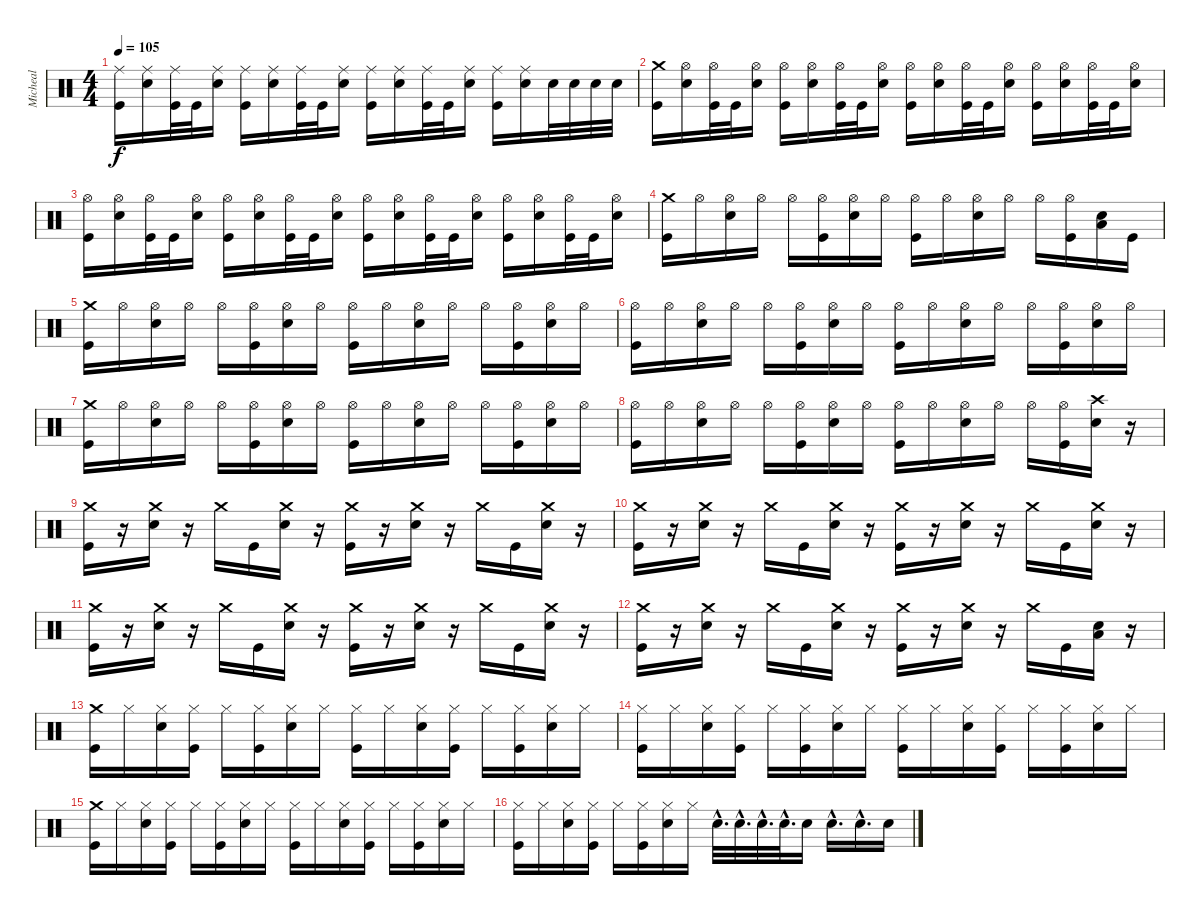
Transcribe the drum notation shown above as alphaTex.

\track ("Micheal" "Micheal") {instrument percussion}
\staff {score}
\articulation defaults
\ts (4 4)
\tempo 105
\clef neutral
\ks c
("Ride (middle)" "Kick (hit)").16{dy f} ("Ride (middle)" "Electric Snare (hit)").16 ("Ride (middle)" "Kick (hit)").32 "Kick (hit)".32 ("Ride (middle)" "Electric Snare (hit)").16 ("Ride (middle)" "Kick (hit)").16 ("Ride (middle)" "Electric Snare (hit)").16 ("Ride (middle)" "Kick (hit)").32 "Kick (hit)".32 ("Ride (middle)" "Electric Snare (hit)").16 ("Ride (middle)" "Kick (hit)").16 ("Ride (middle)" "Electric Snare (hit)").16 ("Ride (middle)" "Kick (hit)").32 "Kick (hit)".32 ("Ride (middle)" "Electric Snare (hit)").16 ("Ride (middle)" "Kick (hit)").16 ("Ride (middle)" "Electric Snare (hit)").16 "Electric Snare (hit)".32 "Electric Snare (hit)".32 "Electric Snare (hit)".32 "Electric Snare (hit)".32 |
("Crash medium (hit)" "Kick (hit)").16 ("Hi-Hat (open)" "Electric Snare (hit)").16 ("Hi-Hat (open)" "Kick (hit)").32 "Kick (hit)".32 ("Hi-Hat (open)" "Electric Snare (hit)").16 ("Hi-Hat (open)" "Kick (hit)").16 ("Hi-Hat (open)" "Electric Snare (hit)").16 ("Hi-Hat (open)" "Kick (hit)").32 "Kick (hit)".32 ("Hi-Hat (open)" "Electric Snare (hit)").16 ("Hi-Hat (open)" "Kick (hit)").16 ("Hi-Hat (open)" "Electric Snare (hit)").16 ("Hi-Hat (open)" "Kick (hit)").32 "Kick (hit)".32 ("Hi-Hat (open)" "Electric Snare (hit)").16 ("Hi-Hat (open)" "Kick (hit)").16 ("Hi-Hat (open)" "Electric Snare (hit)").16 ("Hi-Hat (open)" "Kick (hit)").32 "Kick (hit)".32 ("Hi-Hat (open)" "Electric Snare (hit)").16 |
("Hi-Hat (open)" "Kick (hit)").16 ("Hi-Hat (open)" "Electric Snare (hit)").16 ("Hi-Hat (open)" "Kick (hit)").32 "Kick (hit)".32 ("Hi-Hat (open)" "Electric Snare (hit)").16 ("Hi-Hat (open)" "Kick (hit)").16 ("Hi-Hat (open)" "Electric Snare (hit)").16 ("Hi-Hat (open)" "Kick (hit)").32 "Kick (hit)".32 ("Hi-Hat (open)" "Electric Snare (hit)").16 ("Hi-Hat (open)" "Kick (hit)").16 ("Hi-Hat (open)" "Electric Snare (hit)").16 ("Hi-Hat (open)" "Kick (hit)").32 "Kick (hit)".32 ("Hi-Hat (open)" "Electric Snare (hit)").16 ("Hi-Hat (open)" "Kick (hit)").16 ("Hi-Hat (open)" "Electric Snare (hit)").16 ("Hi-Hat (open)" "Kick (hit)").32 "Kick (hit)".32 ("Hi-Hat (open)" "Electric Snare (hit)").16 |
("Crash medium (hit)" "Kick (hit)").16 "Hi-Hat (open)".16 ("Hi-Hat (open)" "Electric Snare (hit)").16 "Hi-Hat (open)".16 "Hi-Hat (open)".16 ("Hi-Hat (open)" "Kick (hit)").16 ("Hi-Hat (open)" "Electric Snare (hit)").16 "Hi-Hat (open)".16 ("Hi-Hat (open)" "Kick (hit)").16 "Hi-Hat (open)".16 ("Hi-Hat (open)" "Electric Snare (hit)").16 "Hi-Hat (open)".16 "Hi-Hat (open)".16 ("Hi-Hat (open)" "Kick (hit)").16 ("Low Tom (hit)" "Electric Snare (hit)").16 "Kick (hit)".16 |
("Crash medium (hit)" "Kick (hit)").16 "Hi-Hat (open)".16 ("Hi-Hat (open)" "Electric Snare (hit)").16 "Hi-Hat (open)".16 "Hi-Hat (open)".16 ("Hi-Hat (open)" "Kick (hit)").16 ("Hi-Hat (open)" "Electric Snare (hit)").16 "Hi-Hat (open)".16 ("Hi-Hat (open)" "Kick (hit)").16 "Hi-Hat (open)".16 ("Hi-Hat (open)" "Electric Snare (hit)").16 "Hi-Hat (open)".16 "Hi-Hat (open)".16 ("Hi-Hat (open)" "Kick (hit)").16 ("Hi-Hat (open)" "Electric Snare (hit)").16 "Hi-Hat (open)".16 |
("Hi-Hat (open)" "Kick (hit)").16 "Hi-Hat (open)".16 ("Hi-Hat (open)" "Electric Snare (hit)").16 "Hi-Hat (open)".16 "Hi-Hat (open)".16 ("Hi-Hat (open)" "Kick (hit)").16 ("Hi-Hat (open)" "Electric Snare (hit)").16 "Hi-Hat (open)".16 ("Hi-Hat (open)" "Kick (hit)").16 "Hi-Hat (open)".16 ("Hi-Hat (open)" "Electric Snare (hit)").16 "Hi-Hat (open)".16 "Hi-Hat (open)".16 ("Hi-Hat (open)" "Kick (hit)").16 ("Hi-Hat (open)" "Electric Snare (hit)").16 "Hi-Hat (open)".16 |
("Crash medium (hit)" "Kick (hit)").16 "Hi-Hat (open)".16 ("Hi-Hat (open)" "Electric Snare (hit)").16 "Hi-Hat (open)".16 "Hi-Hat (open)".16 ("Hi-Hat (open)" "Kick (hit)").16 ("Hi-Hat (open)" "Electric Snare (hit)").16 "Hi-Hat (open)".16 ("Hi-Hat (open)" "Kick (hit)").16 "Hi-Hat (open)".16 ("Hi-Hat (open)" "Electric Snare (hit)").16 "Hi-Hat (open)".16 "Hi-Hat (open)".16 ("Hi-Hat (open)" "Kick (hit)").16 ("Hi-Hat (open)" "Electric Snare (hit)").16 "Hi-Hat (open)".16 |
("Hi-Hat (open)" "Kick (hit)").16 "Hi-Hat (open)".16 ("Hi-Hat (open)" "Electric Snare (hit)").16 "Hi-Hat (open)".16 "Hi-Hat (open)".16 ("Hi-Hat (open)" "Kick (hit)").16 ("Hi-Hat (open)" "Electric Snare (hit)").16 "Hi-Hat (open)".16 ("Hi-Hat (open)" "Kick (hit)").16 "Hi-Hat (open)".16 ("Hi-Hat (open)" "Electric Snare (hit)").16 "Hi-Hat (open)".16 "Hi-Hat (open)".16 ("Hi-Hat (open)" "Kick (hit)").16 ("Crash high (hit)" "Electric Snare (hit)").16 r.16 |
("Crash medium (hit)" "Kick (hit)").16 r.16 ("Crash medium (hit)" "Electric Snare (hit)").16 r.16 "Crash medium (hit)".16 "Kick (hit)".16 ("Crash medium (hit)" "Electric Snare (hit)").16 r.16 ("Crash medium (hit)" "Kick (hit)").16 r.16 ("Crash medium (hit)" "Electric Snare (hit)").16 r.16 "Crash medium (hit)".16 "Kick (hit)".16 ("Crash medium (hit)" "Electric Snare (hit)").16 r.16 |
("Crash medium (hit)" "Kick (hit)").16 r.16 ("Crash medium (hit)" "Electric Snare (hit)").16 r.16 "Crash medium (hit)".16 "Kick (hit)".16 ("Crash medium (hit)" "Electric Snare (hit)").16 r.16 ("Crash medium (hit)" "Kick (hit)").16 r.16 ("Crash medium (hit)" "Electric Snare (hit)").16 r.16 "Crash medium (hit)".16 "Kick (hit)".16 ("Crash medium (hit)" "Electric Snare (hit)").16 r.16 |
("Crash medium (hit)" "Kick (hit)").16 r.16 ("Crash medium (hit)" "Electric Snare (hit)").16 r.16 "Crash medium (hit)".16 "Kick (hit)".16 ("Crash medium (hit)" "Electric Snare (hit)").16 r.16 ("Crash medium (hit)" "Kick (hit)").16 r.16 ("Crash medium (hit)" "Electric Snare (hit)").16 r.16 "Crash medium (hit)".16 "Kick (hit)".16 ("Crash medium (hit)" "Electric Snare (hit)").16 r.16 |
("Crash medium (hit)" "Kick (hit)").16 r.16 ("Crash medium (hit)" "Electric Snare (hit)").16 r.16 "Crash medium (hit)".16 "Kick (hit)".16 ("Crash medium (hit)" "Electric Snare (hit)").16 r.16 ("Crash medium (hit)" "Kick (hit)").16 r.16 ("Crash medium (hit)" "Electric Snare (hit)").16 r.16 "Crash medium (hit)".16 "Kick (hit)".16 ("Low Tom (hit)" "Electric Snare (hit)").16 r.16 |
("Crash medium (hit)" "Kick (hit)").16 "Hi-Hat (closed)".16 ("Hi-Hat (closed)" "Electric Snare (hit)").16 ("Hi-Hat (closed)" "Kick (hit)").16 "Hi-Hat (closed)".16 ("Hi-Hat (closed)" "Kick (hit)").16 ("Hi-Hat (closed)" "Electric Snare (hit)").16 "Hi-Hat (closed)".16 ("Hi-Hat (closed)" "Kick (hit)").16 "Hi-Hat (closed)".16 ("Hi-Hat (closed)" "Electric Snare (hit)").16 ("Hi-Hat (closed)" "Kick (hit)").16 "Hi-Hat (closed)".16 ("Hi-Hat (closed)" "Kick (hit)").16 ("Hi-Hat (closed)" "Electric Snare (hit)").16 "Hi-Hat (closed)".16 |
("Hi-Hat (closed)" "Kick (hit)").16 "Hi-Hat (closed)".16 ("Hi-Hat (closed)" "Electric Snare (hit)").16 ("Hi-Hat (closed)" "Kick (hit)").16 "Hi-Hat (closed)".16 ("Hi-Hat (closed)" "Kick (hit)").16 ("Hi-Hat (closed)" "Electric Snare (hit)").16 "Hi-Hat (closed)".16 ("Hi-Hat (closed)" "Kick (hit)").16 "Hi-Hat (closed)".16 ("Hi-Hat (closed)" "Electric Snare (hit)").16 ("Hi-Hat (closed)" "Kick (hit)").16 "Hi-Hat (closed)".16 ("Hi-Hat (closed)" "Kick (hit)").16 ("Hi-Hat (closed)" "Electric Snare (hit)").16 "Hi-Hat (closed)".16 |
("Crash medium (hit)" "Kick (hit)").16 "Hi-Hat (closed)".16 ("Hi-Hat (closed)" "Electric Snare (hit)").16 ("Hi-Hat (closed)" "Kick (hit)").16 "Hi-Hat (closed)".16 ("Hi-Hat (closed)" "Kick (hit)").16 ("Hi-Hat (closed)" "Electric Snare (hit)").16 "Hi-Hat (closed)".16 ("Hi-Hat (closed)" "Kick (hit)").16 "Hi-Hat (closed)".16 ("Hi-Hat (closed)" "Electric Snare (hit)").16 ("Hi-Hat (closed)" "Kick (hit)").16 "Hi-Hat (closed)".16 ("Hi-Hat (closed)" "Kick (hit)").16 ("Hi-Hat (closed)" "Electric Snare (hit)").16 "Hi-Hat (closed)".16 |
("Hi-Hat (closed)" "Kick (hit)").16 "Hi-Hat (closed)".16 ("Hi-Hat (closed)" "Electric Snare (hit)").16 ("Hi-Hat (closed)" "Kick (hit)").16 "Hi-Hat (closed)".16 ("Hi-Hat (closed)" "Kick (hit)").16 ("Hi-Hat (closed)" "Electric Snare (hit)").16 "Hi-Hat (closed)".16 "Electric Snare (hit)"{hac}.32{d} "Electric Snare (hit)"{hac}.32{d} "Electric Snare (hit)"{hac}.32{d} "Electric Snare (hit)"{hac}.32{d} "Electric Snare (hit)".16 "Electric Snare (hit)"{hac}.16{d} "Electric Snare (hit)"{hac}.16{d} "Electric Snare (hit)".16
